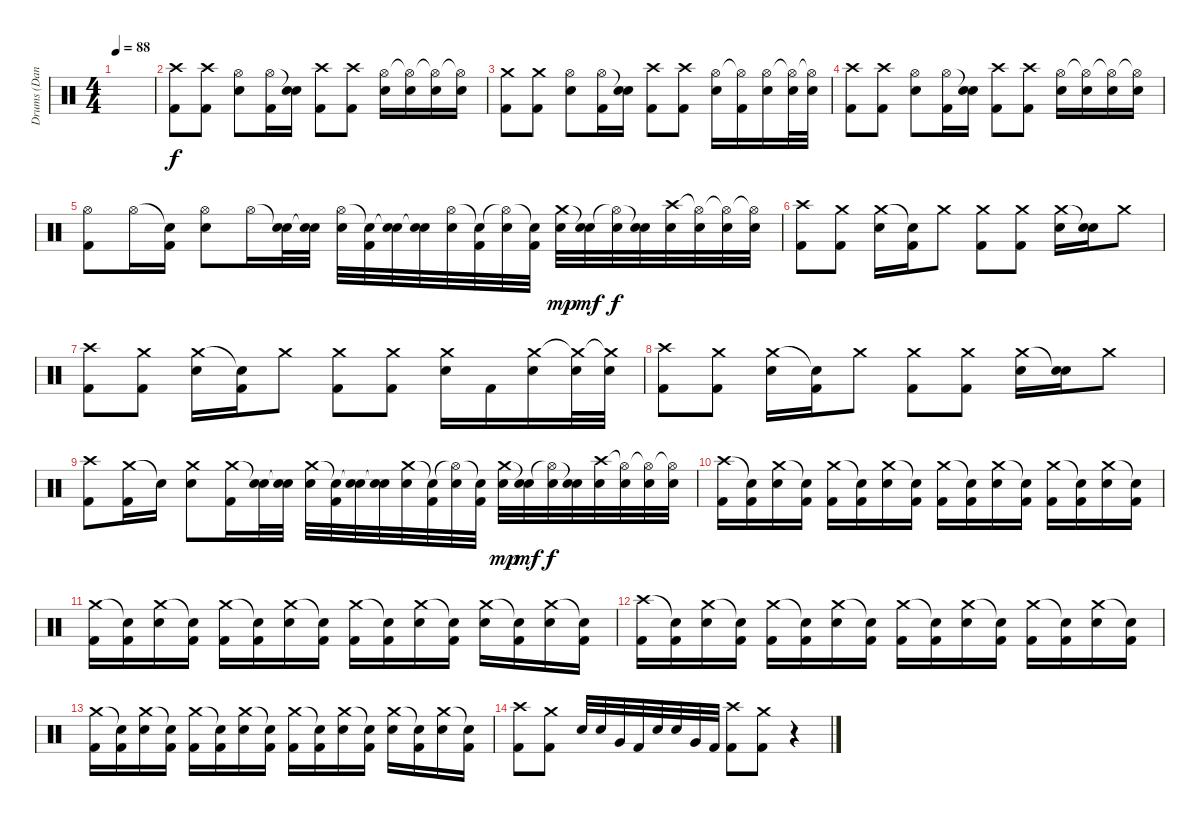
\track ("Drums (Daniel)" "Drums (Dan") {instrument percussion}
\staff {score}
\articulation defaults
\ts (4 4)
\tempo 88
\clef neutral
\ks c
|
("Crash high (hit)" "Kick (hit) 2").8 ("Crash high (hit)" "Kick (hit) 2").8 ("Hi-Hat (open)" "Electric Snare (hit)").8 ("Hi-Hat (open)" "Kick (hit) 2").16 ("Snare (hit)"{t} "Electric Snare (hit)").16 ("Crash high (hit)" "Kick (hit) 2").8 ("Crash high (hit)" "Kick (hit) 2").8 ("Hi-Hat (open)" "Electric Snare (hit)").16 ("Hi-Hat (open)"{t} "Electric Snare (hit)").16 ("Hi-Hat (open)"{t} "Electric Snare (hit)").16 ("Hi-Hat (open)"{t} "Electric Snare (hit)").16 |
("Crash medium (hit)" "Kick (hit) 2").8 ("Crash medium (hit)" "Kick (hit) 2").8 ("Hi-Hat (open)" "Electric Snare (hit)").8 ("Hi-Hat (open)" "Kick (hit) 2").16 ("Snare (hit)"{t} "Electric Snare (hit)").16 ("Crash high (hit)" "Kick (hit) 2").8 ("Crash high (hit)" "Kick (hit) 2").8 ("Hi-Hat (open)" "Electric Snare (hit)").16 ("Hi-Hat (open)"{t} "Kick (hit) 2").16 ("Hi-Hat (open)" "Electric Snare (hit)").16 ("Hi-Hat (open)"{t} "Electric Snare (hit)").32 ("Hi-Hat (open)"{t} "Electric Snare (hit)").32 |
("Crash high (hit)" "Kick (hit) 2").8 ("Crash high (hit)" "Kick (hit) 2").8 ("Hi-Hat (open)" "Electric Snare (hit)").8 ("Hi-Hat (open)" "Kick (hit) 2").16 ("Snare (hit)"{t} "Electric Snare (hit)").16 ("Crash high (hit)" "Kick (hit) 2").8 ("Crash high (hit)" "Kick (hit) 2").8 ("Hi-Hat (open)" "Electric Snare (hit)").16 ("Hi-Hat (open)"{t} "Electric Snare (hit)").16 ("Hi-Hat (open)"{t} "Electric Snare (hit)").16 ("Hi-Hat (open)"{t} "Electric Snare (hit)").16 |
("Hi-Hat (open)" "Kick (hit) 2").8 "Hi-Hat (open)".16 ("Snare (hit)"{t} "Kick (hit) 2").16 ("Hi-Hat (open)" "Electric Snare (hit)").8 "Hi-Hat (open)".16 ("Snare (hit)"{t} "Electric Snare (hit)").32 ("Snare (hit)"{t} "Electric Snare (hit)").32 ("Hi-Hat (open)" "Electric Snare (hit)").32 ("Snare (hit)"{t} "Kick (hit) 2").32 ("Snare (hit)"{t} "Electric Snare (hit)").32 ("Snare (hit)"{t} "Electric Snare (hit)").32 ("Hi-Hat (open)" "Electric Snare (hit)").32 ("Snare (hit)"{t} "Kick (hit) 2").32 ("Hi-Hat (open)"{t} "Electric Snare (hit)").32 ("Snare (hit)"{t} "Kick (hit) 2").32 ("Crash medium (hit)" "Electric Snare (hit)").32{dy mp} ("Snare (hit)"{t} "Electric Snare (hit)").32{dy mf} ("Hi-Hat (open)"{t} "Electric Snare (hit)").32{dy f} ("Snare (hit)"{t} "Electric Snare (hit)").32 ("Crash high (hit)" "Electric Snare (hit)").32 ("Hi-Hat (open)"{t} "Electric Snare (hit)").32 ("Hi-Hat (open)"{t} "Electric Snare (hit)").32 ("Hi-Hat (open)"{t} "Electric Snare (hit)").32 |
("Crash high (hit)" "Kick (hit) 2").8 ("Crash medium (hit)" "Kick (hit) 2").8 ("Crash medium (hit)" "Electric Snare (hit)").16 ("Snare (hit)"{t} "Kick (hit) 2").16 "Crash medium (hit)".8 ("Crash medium (hit)" "Kick (hit) 2").8 ("Crash medium (hit)" "Kick (hit) 2").8 ("Crash medium (hit)" "Electric Snare (hit)").16 ("Snare (hit)"{t} "Electric Snare (hit)").16 "Crash medium (hit)".8 |
("Crash high (hit)" "Kick (hit) 2").8 ("Crash medium (hit)" "Kick (hit) 2").8 ("Crash medium (hit)" "Electric Snare (hit)").16 ("Snare (hit)"{t} "Kick (hit) 2").16 "Crash medium (hit)".8 ("Crash medium (hit)" "Kick (hit) 2").8 ("Crash medium (hit)" "Kick (hit) 2").8 ("Crash medium (hit)" "Electric Snare (hit)").16 "Kick (hit) 2".16 ("Crash medium (hit)" "Electric Snare (hit)").16 ("Crash medium (hit)"{t} "Electric Snare (hit)").32 ("Crash medium (hit)"{t} "Electric Snare (hit)").32 |
("Crash high (hit)" "Kick (hit) 2").8 ("Crash medium (hit)" "Kick (hit) 2").8 ("Crash medium (hit)" "Electric Snare (hit)").16 ("Snare (hit)"{t} "Kick (hit) 2").16 "Crash medium (hit)".8 ("Crash medium (hit)" "Kick (hit) 2").8 ("Crash medium (hit)" "Kick (hit) 2").8 ("Crash medium (hit)" "Electric Snare (hit)").16 ("Snare (hit)"{t} "Electric Snare (hit)").16 "Crash medium (hit)".8 |
("Crash high (hit)" "Kick (hit) 2").8 ("Crash medium (hit)" "Kick (hit) 2").16 "Snare (hit)"{t}.16 ("Crash medium (hit)" "Electric Snare (hit)").8 ("Crash medium (hit)" "Kick (hit) 2").16 ("Snare (hit)"{t} "Electric Snare (hit)").32 ("Snare (hit)"{t} "Electric Snare (hit)").32 ("Crash medium (hit)" "Electric Snare (hit)").32 ("Snare (hit)"{t} "Kick (hit) 2").32 ("Snare (hit)"{t} "Electric Snare (hit)").32 ("Snare (hit)"{t} "Electric Snare (hit)").32 ("Crash medium (hit)" "Electric Snare (hit)").32 ("Snare (hit)"{t} "Kick (hit) 2").32 ("Hi-Hat (open)"{t} "Electric Snare (hit)").32 ("Snare (hit)"{t} "Kick (hit) 2").32 ("Crash medium (hit)" "Electric Snare (hit)").32{dy mp} ("Snare (hit)"{t} "Electric Snare (hit)").32{dy mf} ("Hi-Hat (open)"{t} "Electric Snare (hit)").32{dy f} ("Snare (hit)"{t} "Electric Snare (hit)").32 ("Crash high (hit)" "Electric Snare (hit)").32 ("Hi-Hat (open)"{t} "Electric Snare (hit)").32 ("Hi-Hat (open)"{t} "Electric Snare (hit)").32 ("Hi-Hat (open)"{t} "Electric Snare (hit)").32 |
("Crash high (hit)" "Kick (hit) 2").16 ("Snare (hit)"{t} "Kick (hit) 2").16 ("Crash medium (hit)" "Electric Snare (hit)").16 ("Snare (hit)"{t} "Kick (hit) 2").16 ("Crash medium (hit)" "Kick (hit) 2").16 ("Snare (hit)"{t} "Kick (hit) 2").16 ("Crash medium (hit)" "Electric Snare (hit)").16 ("Snare (hit)"{t} "Kick (hit) 2").16 ("Crash medium (hit)" "Kick (hit) 2").16 ("Snare (hit)"{t} "Kick (hit) 2").16 ("Crash medium (hit)" "Electric Snare (hit)").16 ("Snare (hit)"{t} "Kick (hit) 2").16 ("Crash medium (hit)" "Kick (hit) 2").16 ("Snare (hit)"{t} "Kick (hit) 2").16 ("Crash medium (hit)" "Electric Snare (hit)").16 ("Snare (hit)"{t} "Kick (hit) 2").16 |
("Crash medium (hit)" "Kick (hit) 2").16 ("Snare (hit)"{t} "Kick (hit) 2").16 ("Crash medium (hit)" "Electric Snare (hit)").16 ("Snare (hit)"{t} "Kick (hit) 2").16 ("Crash medium (hit)" "Kick (hit) 2").16 ("Snare (hit)"{t} "Kick (hit) 2").16 ("Crash medium (hit)" "Electric Snare (hit)").16 ("Snare (hit)"{t} "Kick (hit) 2").16 ("Crash medium (hit)" "Kick (hit) 2").16 ("Snare (hit)"{t} "Kick (hit) 2").16 ("Crash medium (hit)" "Electric Snare (hit)").16 ("Snare (hit)"{t} "Kick (hit) 2").16 ("Crash medium (hit)" "Electric Snare (hit)").16 ("Snare (hit)"{t} "Kick (hit) 2").16 ("Crash medium (hit)" "Electric Snare (hit)").16 ("Snare (hit)"{t} "Kick (hit) 2").16 |
("Crash high (hit)" "Kick (hit) 2").16 ("Snare (hit)"{t} "Kick (hit) 2").16 ("Crash medium (hit)" "Electric Snare (hit)").16 ("Snare (hit)"{t} "Kick (hit) 2").16 ("Crash medium (hit)" "Kick (hit) 2").16 ("Snare (hit)"{t} "Kick (hit) 2").16 ("Crash medium (hit)" "Electric Snare (hit)").16 ("Snare (hit)"{t} "Kick (hit) 2").16 ("Crash medium (hit)" "Kick (hit) 2").16 ("Snare (hit)"{t} "Kick (hit) 2").16 ("Crash medium (hit)" "Electric Snare (hit)").16 ("Snare (hit)"{t} "Kick (hit) 2").16 ("Crash medium (hit)" "Kick (hit) 2").16 ("Snare (hit)"{t} "Kick (hit) 2").16 ("Crash medium (hit)" "Electric Snare (hit)").16 ("Snare (hit)"{t} "Kick (hit) 2").16 |
("Crash medium (hit)" "Kick (hit) 2").16 ("Snare (hit)"{t} "Kick (hit) 2").16 ("Crash medium (hit)" "Electric Snare (hit)").16 ("Snare (hit)"{t} "Kick (hit) 2").16 ("Crash medium (hit)" "Kick (hit) 2").16 ("Snare (hit)"{t} "Kick (hit) 2").16 ("Crash medium (hit)" "Electric Snare (hit)").16 ("Snare (hit)"{t} "Kick (hit) 2").16 ("Crash medium (hit)" "Kick (hit) 2").16 ("Snare (hit)"{t} "Kick (hit) 2").16 ("Crash medium (hit)" "Electric Snare (hit)").16 ("Snare (hit)"{t} "Kick (hit) 2").16 ("Crash medium (hit)" "Electric Snare (hit)").16 ("Snare (hit)"{t} "Kick (hit) 2").16 ("Crash medium (hit)" "Electric Snare (hit)").16 ("Snare (hit)"{t} "Kick (hit) 2").16 |
("Crash high (hit)" "Kick (hit) 2").8 ("Crash medium (hit)" "Kick (hit) 2").8 "Electric Snare (hit)".32 "Electric Snare (hit)".32 "Very Low Tom (hit)".32 "Kick (hit) 2".32 "Electric Snare (hit)".32 "Electric Snare (hit)".32 "Very Low Tom (hit)".32 "Kick (hit) 2".32 ("Crash high (hit)" "Kick (hit) 2").8 ("Crash medium (hit)" "Kick (hit) 2").8 r.4
